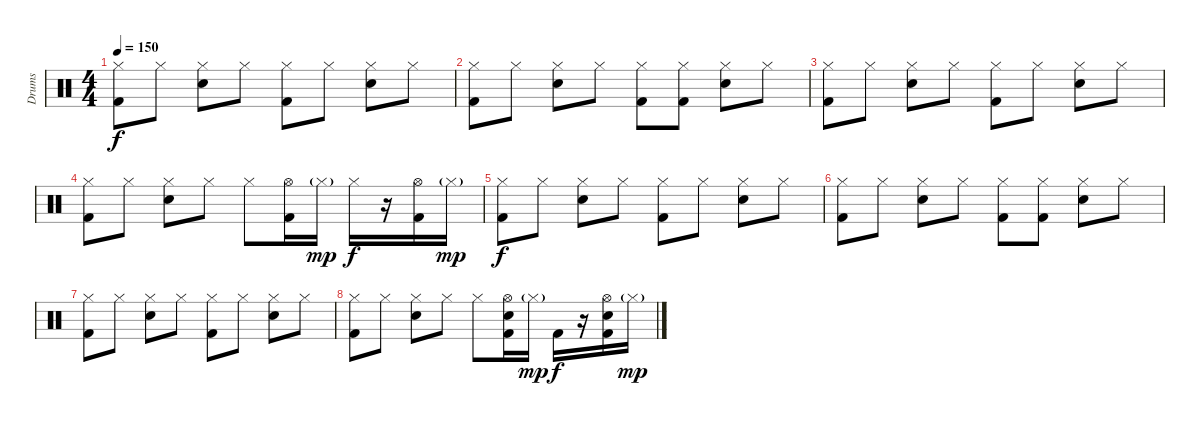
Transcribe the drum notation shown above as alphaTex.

\track ("Drums" "Drums") {instrument percussion}
\staff {score}
\articulation defaults
\ts (4 4)
\tempo 150
\clef neutral
\ks c
("Hi-Hat (closed)" "Kick (hit) 2").8{dy f} "Hi-Hat (closed)".8 ("Hi-Hat (closed)" "Electric Snare (hit)").8 "Hi-Hat (closed)".8 ("Hi-Hat (closed)" "Kick (hit) 2").8 "Hi-Hat (closed)".8 ("Hi-Hat (closed)" "Electric Snare (hit)").8 "Hi-Hat (closed)".8 |
("Hi-Hat (closed)" "Kick (hit) 2").8 "Hi-Hat (closed)".8 ("Hi-Hat (closed)" "Electric Snare (hit)").8 "Hi-Hat (closed)".8 ("Hi-Hat (closed)" "Kick (hit) 2").8 ("Hi-Hat (closed)" "Kick (hit) 2").8 ("Hi-Hat (closed)" "Electric Snare (hit)").8 "Hi-Hat (closed)".8 |
("Hi-Hat (closed)" "Kick (hit) 2").8 "Hi-Hat (closed)".8 ("Hi-Hat (closed)" "Electric Snare (hit)").8 "Hi-Hat (closed)".8 ("Hi-Hat (closed)" "Kick (hit) 2").8 "Hi-Hat (closed)".8 ("Hi-Hat (closed)" "Electric Snare (hit)").8 "Hi-Hat (closed)".8 |
("Hi-Hat (closed)" "Kick (hit) 2").8 "Hi-Hat (closed)".8 ("Hi-Hat (closed)" "Electric Snare (hit)").8 "Hi-Hat (closed)".8 "Hi-Hat (closed)".8 ("Hi-Hat (open)" "Kick (hit) 2").16 "Hi-Hat (closed)"{g}.16{dy mp} "Hi-Hat (closed)".16{dy f} r.16 ("Hi-Hat (open)" "Kick (hit) 2").16 "Hi-Hat (closed)"{g}.16{dy mp} |
("Hi-Hat (closed)" "Kick (hit) 2").8{dy f} "Hi-Hat (closed)".8 ("Hi-Hat (closed)" "Electric Snare (hit)").8 "Hi-Hat (closed)".8 ("Hi-Hat (closed)" "Kick (hit) 2").8 "Hi-Hat (closed)".8 ("Hi-Hat (closed)" "Electric Snare (hit)").8 "Hi-Hat (closed)".8 |
("Hi-Hat (closed)" "Kick (hit) 2").8 "Hi-Hat (closed)".8 ("Hi-Hat (closed)" "Electric Snare (hit)").8 "Hi-Hat (closed)".8 ("Hi-Hat (closed)" "Kick (hit) 2").8 ("Hi-Hat (closed)" "Kick (hit) 2").8 ("Hi-Hat (closed)" "Electric Snare (hit)").8 "Hi-Hat (closed)".8 |
("Hi-Hat (closed)" "Kick (hit) 2").8 "Hi-Hat (closed)".8 ("Hi-Hat (closed)" "Electric Snare (hit)").8 "Hi-Hat (closed)".8 ("Hi-Hat (closed)" "Kick (hit) 2").8 "Hi-Hat (closed)".8 ("Hi-Hat (closed)" "Electric Snare (hit)").8 "Hi-Hat (closed)".8 |
("Hi-Hat (closed)" "Kick (hit) 2").8 "Hi-Hat (closed)".8 ("Hi-Hat (closed)" "Electric Snare (hit)").8 "Hi-Hat (closed)".8 "Hi-Hat (closed)".8 ("Hi-Hat (open)" "Electric Snare (hit)" "Kick (hit) 2").16 "Hi-Hat (closed)"{g}.16{dy mp} "Kick (hit) 2".16{dy f} r.16 ("Hi-Hat (open)" "Electric Snare (hit)" "Kick (hit) 2").16 "Hi-Hat (closed)"{g}.16{dy mp}
